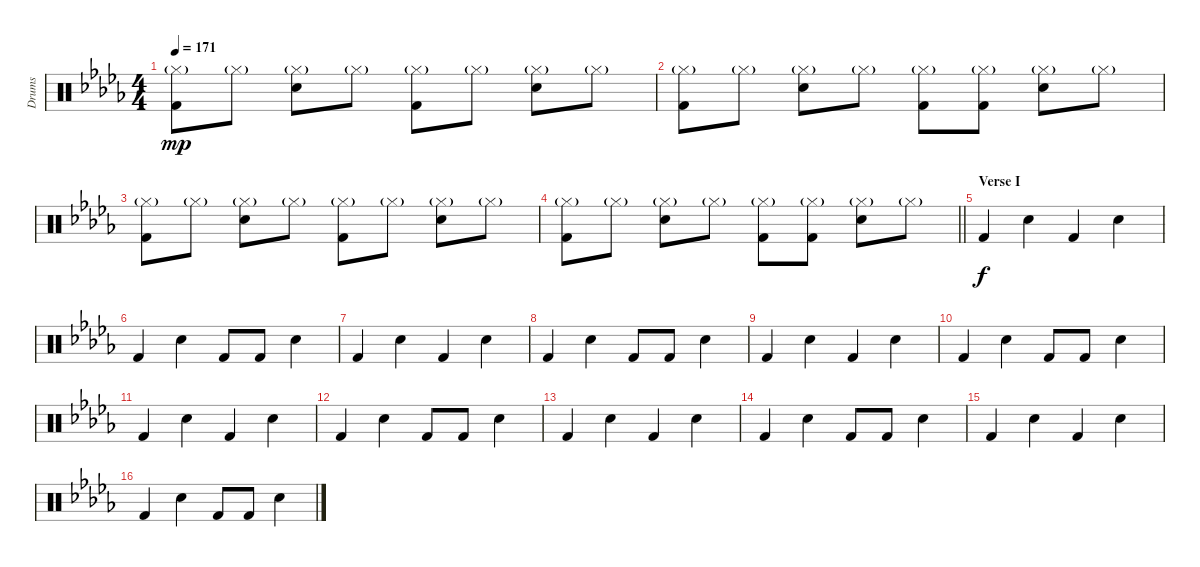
\track ("Drums" "Drums") {instrument percussion}
\staff {score}
\articulation defaults
\ts (4 4)
\tempo 171
\clef neutral
\ks db
("Hi-Hat (closed)"{g} "Kick (hit) 2").8{dy mp} "Hi-Hat (closed)"{g}.8 ("Hi-Hat (closed)"{g} "Snare (hit) 2").8 "Hi-Hat (closed)"{g}.8 ("Hi-Hat (closed)"{g} "Kick (hit) 2").8 "Hi-Hat (closed)"{g}.8 ("Hi-Hat (closed)"{g} "Snare (hit) 2").8 "Hi-Hat (closed)"{g}.8 |
("Hi-Hat (closed)"{g} "Kick (hit) 2").8 "Hi-Hat (closed)"{g}.8 ("Hi-Hat (closed)"{g} "Snare (hit) 2").8 "Hi-Hat (closed)"{g}.8 ("Hi-Hat (closed)"{g} "Kick (hit) 2").8 ("Hi-Hat (closed)"{g} "Kick (hit) 2").8 ("Hi-Hat (closed)"{g} "Snare (hit) 2").8 "Hi-Hat (closed)"{g}.8 |
("Hi-Hat (closed)"{g} "Kick (hit) 2").8 "Hi-Hat (closed)"{g}.8 ("Hi-Hat (closed)"{g} "Snare (hit) 2").8 "Hi-Hat (closed)"{g}.8 ("Hi-Hat (closed)"{g} "Kick (hit) 2").8 "Hi-Hat (closed)"{g}.8 ("Hi-Hat (closed)"{g} "Snare (hit) 2").8 "Hi-Hat (closed)"{g}.8 |
\barLineRight lightlight
("Hi-Hat (closed)"{g} "Kick (hit) 2").8 "Hi-Hat (closed)"{g}.8 ("Hi-Hat (closed)"{g} "Snare (hit) 2").8 "Hi-Hat (closed)"{g}.8 ("Hi-Hat (closed)"{g} "Kick (hit) 2").8 ("Hi-Hat (closed)"{g} "Kick (hit) 2").8 ("Hi-Hat (closed)"{g} "Snare (hit) 2").8 "Hi-Hat (closed)"{g}.8 |
\section ("" "Verse I")
"Kick (hit) 2".4{dy f} "Snare (hit) 2".4 "Kick (hit) 2".4 "Snare (hit) 2".4 |
"Kick (hit) 2".4 "Snare (hit) 2".4 "Kick (hit) 2".8 "Kick (hit) 2".8 "Snare (hit) 2".4 |
"Kick (hit) 2".4 "Snare (hit) 2".4 "Kick (hit) 2".4 "Snare (hit) 2".4 |
"Kick (hit) 2".4 "Snare (hit) 2".4 "Kick (hit) 2".8 "Kick (hit) 2".8 "Snare (hit) 2".4 |
"Kick (hit) 2".4 "Snare (hit) 2".4 "Kick (hit) 2".4 "Snare (hit) 2".4 |
"Kick (hit) 2".4 "Snare (hit) 2".4 "Kick (hit) 2".8 "Kick (hit) 2".8 "Snare (hit) 2".4 |
"Kick (hit) 2".4 "Snare (hit) 2".4 "Kick (hit) 2".4 "Snare (hit) 2".4 |
"Kick (hit) 2".4 "Snare (hit) 2".4 "Kick (hit) 2".8 "Kick (hit) 2".8 "Snare (hit) 2".4 |
"Kick (hit) 2".4 "Snare (hit) 2".4 "Kick (hit) 2".4 "Snare (hit) 2".4 |
"Kick (hit) 2".4 "Snare (hit) 2".4 "Kick (hit) 2".8 "Kick (hit) 2".8 "Snare (hit) 2".4 |
"Kick (hit) 2".4 "Snare (hit) 2".4 "Kick (hit) 2".4 "Snare (hit) 2".4 |
"Kick (hit) 2".4 "Snare (hit) 2".4 "Kick (hit) 2".8 "Kick (hit) 2".8 "Snare (hit) 2".4
